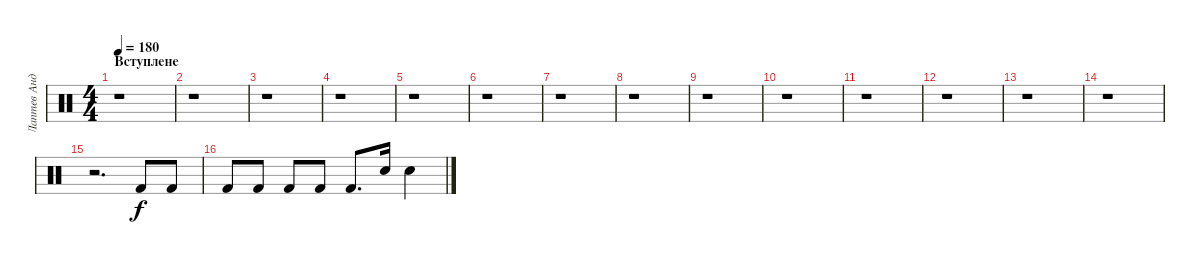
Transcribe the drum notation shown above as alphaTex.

\track ("Лаптев Андрей" "Лаптев Анд") {instrument percussion}
\staff {score}
\articulation defaults
\ts (4 4)
\section ("" "Вступлене")
\tempo 180
\clef neutral
\ks c
r.1{dy f} |
r.1 |
r.1 |
r.1 |
r.1 |
r.1 |
r.1 |
r.1 |
r.1 |
r.1 |
r.1 |
r.1 |
r.1 |
r.1 |
r.2{d} "Kick (hit) 2".8 "Kick (hit) 2".8 |
"Kick (hit) 2".8 "Kick (hit) 2".8 "Kick (hit) 2".8 "Kick (hit) 2".8 "Kick (hit) 2".8{d} "Snare (hit) 2".16 "Snare (hit) 2".4
